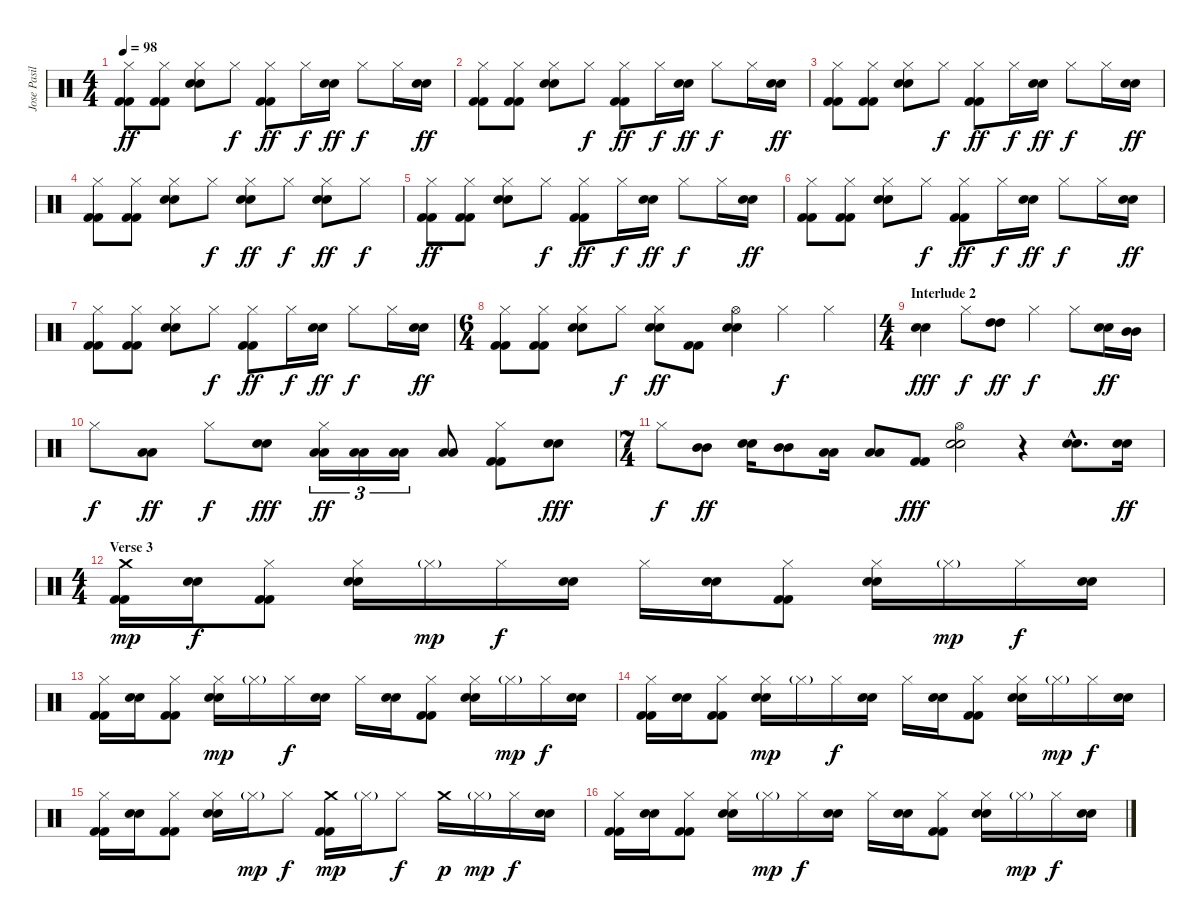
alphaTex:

\track ("Jose Pasillas - Drums" "Jose Pasil") {instrument percussion}
\staff {score}
\articulation defaults
\ts (4 4)
\tempo 98
\clef neutral
\ks c
("Hi-Hat (closed)" "Kick (hit) 2" "Kick (hit) 2").8{dy ff} ("Hi-Hat (closed)" "Kick (hit) 2" "Kick (hit) 2").8 ("Hi-Hat (closed)" "Electric Snare (hit)" "Electric Snare (hit)").8 "Hi-Hat (closed)".8{dy f} ("Hi-Hat (closed)" "Kick (hit) 2" "Kick (hit) 2").8{dy ff} "Hi-Hat (closed)".16{dy f} ("Electric Snare (hit)" "Electric Snare (hit)").16{dy ff} "Hi-Hat (closed)".8{dy f} "Hi-Hat (closed)".16 ("Electric Snare (hit)" "Electric Snare (hit)").16{dy ff} |
("Hi-Hat (closed)" "Kick (hit) 2" "Kick (hit) 2").8 ("Hi-Hat (closed)" "Kick (hit) 2" "Kick (hit) 2").8 ("Hi-Hat (closed)" "Electric Snare (hit)" "Electric Snare (hit)").8 "Hi-Hat (closed)".8{dy f} ("Hi-Hat (closed)" "Kick (hit) 2" "Kick (hit) 2").8{dy ff} "Hi-Hat (closed)".16{dy f} ("Electric Snare (hit)" "Electric Snare (hit)").16{dy ff} "Hi-Hat (closed)".8{dy f} "Hi-Hat (closed)".16 ("Electric Snare (hit)" "Electric Snare (hit)").16{dy ff} |
("Hi-Hat (closed)" "Kick (hit) 2" "Kick (hit) 2").8 ("Hi-Hat (closed)" "Kick (hit) 2" "Kick (hit) 2").8 ("Hi-Hat (closed)" "Electric Snare (hit)" "Electric Snare (hit)").8 "Hi-Hat (closed)".8{dy f} ("Hi-Hat (closed)" "Kick (hit) 2" "Kick (hit) 2").8{dy ff} "Hi-Hat (closed)".16{dy f} ("Electric Snare (hit)" "Electric Snare (hit)").16{dy ff} "Hi-Hat (closed)".8{dy f} "Hi-Hat (closed)".16 ("Electric Snare (hit)" "Electric Snare (hit)").16{dy ff} |
("Hi-Hat (closed)" "Kick (hit) 2" "Kick (hit) 2").8 ("Hi-Hat (closed)" "Kick (hit) 2" "Kick (hit) 2").8 ("Hi-Hat (closed)" "Electric Snare (hit)" "Electric Snare (hit)").8 "Hi-Hat (closed)".8{dy f} ("Hi-Hat (closed)" "Electric Snare (hit)" "Electric Snare (hit)").8{dy ff} "Hi-Hat (closed)".8{dy f} ("Hi-Hat (closed)" "Electric Snare (hit)" "Electric Snare (hit)").8{dy ff} "Hi-Hat (closed)".8{dy f} |
("Hi-Hat (closed)" "Kick (hit) 2" "Kick (hit) 2").8{dy ff} ("Hi-Hat (closed)" "Kick (hit) 2" "Kick (hit) 2").8 ("Hi-Hat (closed)" "Electric Snare (hit)" "Electric Snare (hit)").8 "Hi-Hat (closed)".8{dy f} ("Hi-Hat (closed)" "Kick (hit) 2" "Kick (hit) 2").8{dy ff} "Hi-Hat (closed)".16{dy f} ("Electric Snare (hit)" "Electric Snare (hit)").16{dy ff} "Hi-Hat (closed)".8{dy f} "Hi-Hat (closed)".16 ("Electric Snare (hit)" "Electric Snare (hit)").16{dy ff} |
("Hi-Hat (closed)" "Kick (hit) 2" "Kick (hit) 2").8 ("Hi-Hat (closed)" "Kick (hit) 2" "Kick (hit) 2").8 ("Hi-Hat (closed)" "Electric Snare (hit)" "Electric Snare (hit)").8 "Hi-Hat (closed)".8{dy f} ("Hi-Hat (closed)" "Kick (hit) 2" "Kick (hit) 2").8{dy ff} "Hi-Hat (closed)".16{dy f} ("Electric Snare (hit)" "Electric Snare (hit)").16{dy ff} "Hi-Hat (closed)".8{dy f} "Hi-Hat (closed)".16 ("Electric Snare (hit)" "Electric Snare (hit)").16{dy ff} |
("Hi-Hat (closed)" "Kick (hit) 2" "Kick (hit) 2").8 ("Hi-Hat (closed)" "Kick (hit) 2" "Kick (hit) 2").8 ("Hi-Hat (closed)" "Electric Snare (hit)" "Electric Snare (hit)").8 "Hi-Hat (closed)".8{dy f} ("Hi-Hat (closed)" "Kick (hit) 2" "Kick (hit) 2").8{dy ff} "Hi-Hat (closed)".16{dy f} ("Electric Snare (hit)" "Electric Snare (hit)").16{dy ff} "Hi-Hat (closed)".8{dy f} "Hi-Hat (closed)".16 ("Electric Snare (hit)" "Electric Snare (hit)").16{dy ff} |
\ts (6 4)
("Hi-Hat (closed)" "Kick (hit) 2" "Kick (hit) 2").8 ("Hi-Hat (closed)" "Kick (hit) 2" "Kick (hit) 2").8 ("Hi-Hat (closed)" "Electric Snare (hit)" "Electric Snare (hit)").8 "Hi-Hat (closed)".8{dy f} ("Hi-Hat (closed)" "Electric Snare (hit)" "Electric Snare (hit)").8{dy ff} ("Kick (hit) 2" "Kick (hit) 2").8 ("Hi-Hat (open)" "Electric Snare (hit)" "Electric Snare (hit)").4 "Hi-Hat (closed)".4{dy f} "Hi-Hat (closed)".4 |
\ts (4 4)
\section ("" "Interlude 2")
("Electric Snare (hit)" "Electric Snare (hit)").4{dy fff} "Hi-Hat (closed)".8{dy f} ("High Tom (hit)" "High Tom (hit)").8{dy ff} "Hi-Hat (closed)".4{dy f} "Hi-Hat (closed)".8 ("Electric Snare (hit)" "Electric Snare (hit)").16{dy ff} ("Mid Tom (hit)" "Mid Tom (hit)").16 |
"Hi-Hat (closed)".8{dy f} ("Low Tom (hit)" "Low Tom (hit)").8{dy ff} "Hi-Hat (closed)".8{dy f} ("Electric Snare (hit)" "Electric Snare (hit)").8{dy fff} ("Hi-Hat (closed)" "Low Tom (hit)" "Low Tom (hit)").16{tu (3 2) dy ff} ("Low Tom (hit)" "Low Tom (hit)").16{tu (3 2)} ("Low Tom (hit)" "Low Tom (hit)").16{tu (3 2)} ("Low Tom (hit)" "Low Tom (hit)").8 ("Hi-Hat (closed)" "Kick (hit) 2" "Kick (hit) 2").8 ("Electric Snare (hit)" "Electric Snare (hit)").8{dy fff} |
\ts (7 4)
"Hi-Hat (closed)".8{dy f} ("Mid Tom (hit)" "Mid Tom (hit)").8{dy ff} ("Electric Snare (hit)" "Electric Snare (hit)").16 ("Mid Tom (hit)" "Mid Tom (hit)").8 ("Low Tom (hit)" "Low Tom (hit)").16 ("Low Tom (hit)" "Low Tom (hit)").8 ("Kick (hit) 2" "Kick (hit) 2").8{dy fff} ("Hi-Hat (open)" "Electric Snare (hit)" "Electric Snare (hit)").2 r.4 ("Electric Snare (hit)"{hac} "Electric Snare (hit)"{hac}).8{d} ("Electric Snare (hit)" "Electric Snare (hit)").16{dy ff} |
\ts (4 4)
\section ("" "Verse 3")
("Crash medium (hit)" "Kick (hit) 2" "Kick (hit) 2").16{dy mp} ("Electric Snare (hit)" "Electric Snare (hit)").16{dy f} ("Hi-Hat (closed)" "Kick (hit) 2" "Kick (hit) 2").8 ("Hi-Hat (closed)" "Electric Snare (hit)" "Electric Snare (hit)").16 "Hi-Hat (closed)"{g}.16{dy mp} "Hi-Hat (closed)".16{dy f} ("Electric Snare (hit)" "Electric Snare (hit)").16 "Hi-Hat (closed)".16 ("Electric Snare (hit)" "Electric Snare (hit)").16 ("Hi-Hat (closed)" "Kick (hit) 2" "Kick (hit) 2").8 ("Hi-Hat (closed)" "Electric Snare (hit)" "Electric Snare (hit)").16 "Hi-Hat (closed)"{g}.16{dy mp} "Hi-Hat (closed)".16{dy f} ("Electric Snare (hit)" "Electric Snare (hit)").16 |
("Hi-Hat (closed)" "Kick (hit) 2" "Kick (hit) 2").16 ("Electric Snare (hit)" "Electric Snare (hit)").16 ("Hi-Hat (closed)" "Kick (hit) 2" "Kick (hit) 2").8 ("Hi-Hat (closed)" "Electric Snare (hit)" "Electric Snare (hit)").16{dy mp} "Hi-Hat (closed)"{g}.16 "Hi-Hat (closed)".16{dy f} ("Electric Snare (hit)" "Electric Snare (hit)").16 "Hi-Hat (closed)".16 ("Electric Snare (hit)" "Electric Snare (hit)").16 ("Hi-Hat (closed)" "Kick (hit) 2" "Kick (hit) 2").8 ("Hi-Hat (closed)" "Electric Snare (hit)" "Electric Snare (hit)").16 "Hi-Hat (closed)"{g}.16{dy mp} "Hi-Hat (closed)".16{dy f} ("Electric Snare (hit)" "Electric Snare (hit)").16 |
("Hi-Hat (closed)" "Kick (hit) 2" "Kick (hit) 2").16 ("Electric Snare (hit)" "Electric Snare (hit)").16 ("Hi-Hat (closed)" "Kick (hit) 2" "Kick (hit) 2").8 ("Hi-Hat (closed)" "Electric Snare (hit)" "Electric Snare (hit)").16{dy mp} "Hi-Hat (closed)"{g}.16 "Hi-Hat (closed)".16{dy f} ("Electric Snare (hit)" "Electric Snare (hit)").16 "Hi-Hat (closed)".16 ("Electric Snare (hit)" "Electric Snare (hit)").16 ("Hi-Hat (closed)" "Kick (hit) 2" "Kick (hit) 2").8 ("Hi-Hat (closed)" "Electric Snare (hit)" "Electric Snare (hit)").16 "Hi-Hat (closed)"{g}.16{dy mp} "Hi-Hat (closed)".16{dy f} ("Electric Snare (hit)" "Electric Snare (hit)").16 |
("Hi-Hat (closed)" "Kick (hit) 2" "Kick (hit) 2").16 ("Electric Snare (hit)" "Electric Snare (hit)").16 ("Hi-Hat (closed)" "Kick (hit) 2" "Kick (hit) 2").8 ("Hi-Hat (closed)" "Electric Snare (hit)" "Electric Snare (hit)").16 "Hi-Hat (closed)"{g}.16{dy mp} "Hi-Hat (closed)".8{dy f} ("Crash medium (hit)" "Kick (hit) 2" "Kick (hit) 2").16{dy mp} "Hi-Hat (closed)"{g}.16 "Hi-Hat (closed)".8{dy f} "Crash medium (hit)".16{dy p} "Hi-Hat (closed)"{g}.16{dy mp} "Hi-Hat (closed)".16{dy f} ("Electric Snare (hit)" "Electric Snare (hit)").16 |
("Hi-Hat (closed)" "Kick (hit) 2" "Kick (hit) 2").16 ("Electric Snare (hit)" "Electric Snare (hit)").16 ("Hi-Hat (closed)" "Kick (hit) 2" "Kick (hit) 2").8 ("Hi-Hat (closed)" "Electric Snare (hit)" "Electric Snare (hit)").16 "Hi-Hat (closed)"{g}.16{dy mp} "Hi-Hat (closed)".16{dy f} ("Electric Snare (hit)" "Electric Snare (hit)").16 "Hi-Hat (closed)".16 ("Electric Snare (hit)" "Electric Snare (hit)").16 ("Hi-Hat (closed)" "Kick (hit) 2" "Kick (hit) 2").8 ("Hi-Hat (closed)" "Electric Snare (hit)" "Electric Snare (hit)").16 "Hi-Hat (closed)"{g}.16{dy mp} "Hi-Hat (closed)".16{dy f} ("Electric Snare (hit)" "Electric Snare (hit)").16
